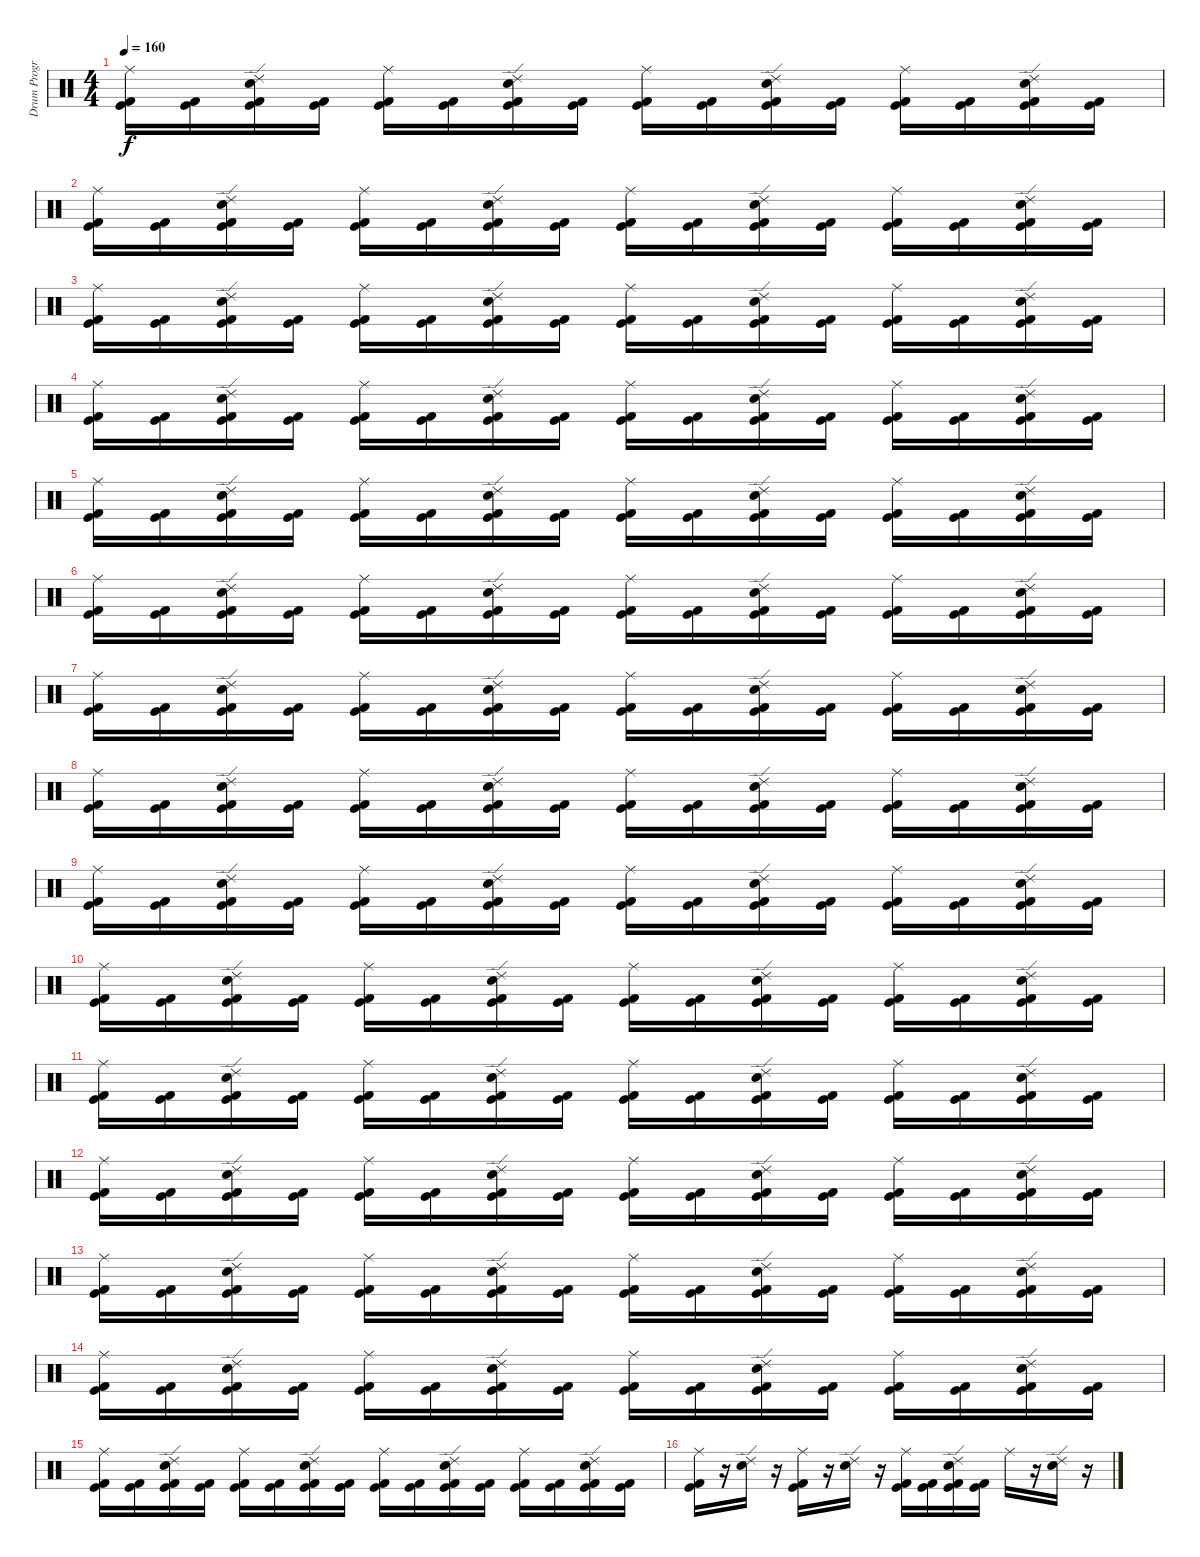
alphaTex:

\track ("Drum Program - BG" "Drum Progr") {instrument percussion}
\staff {score}
\articulation defaults
\ts (4 4)
\tempo 160
\clef neutral
\ks c
("Kick (hit)" "Kick (hit) 2" "Ride (middle)").16{dy f} ("Kick (hit)" "Kick (hit) 2").16 ("Kick (hit)" "Kick (hit) 2" "Electric Snare (hit)" "Ride (edge) 2").16 ("Kick (hit)" "Kick (hit) 2").16 ("Kick (hit)" "Kick (hit) 2" "Ride (middle)").16 ("Kick (hit)" "Kick (hit) 2").16 ("Kick (hit)" "Kick (hit) 2" "Electric Snare (hit)" "Ride (edge) 2").16 ("Kick (hit)" "Kick (hit) 2").16 ("Kick (hit)" "Kick (hit) 2" "Ride (middle)").16 ("Kick (hit)" "Kick (hit) 2").16 ("Kick (hit)" "Kick (hit) 2" "Electric Snare (hit)" "Ride (edge) 2").16 ("Kick (hit)" "Kick (hit) 2").16 ("Kick (hit)" "Kick (hit) 2" "Ride (middle)").16 ("Kick (hit)" "Kick (hit) 2").16 ("Kick (hit)" "Kick (hit) 2" "Electric Snare (hit)" "Ride (edge) 2").16 ("Kick (hit)" "Kick (hit) 2").16 |
("Kick (hit)" "Kick (hit) 2" "Ride (middle)").16 ("Kick (hit)" "Kick (hit) 2").16 ("Kick (hit)" "Kick (hit) 2" "Electric Snare (hit)" "Ride (edge) 2").16 ("Kick (hit)" "Kick (hit) 2").16 ("Kick (hit)" "Kick (hit) 2" "Ride (middle)").16 ("Kick (hit)" "Kick (hit) 2").16 ("Kick (hit)" "Kick (hit) 2" "Electric Snare (hit)" "Ride (edge) 2").16 ("Kick (hit)" "Kick (hit) 2").16 ("Kick (hit)" "Kick (hit) 2" "Ride (middle)").16 ("Kick (hit)" "Kick (hit) 2").16 ("Kick (hit)" "Kick (hit) 2" "Electric Snare (hit)" "Ride (edge) 2").16 ("Kick (hit)" "Kick (hit) 2").16 ("Kick (hit)" "Kick (hit) 2" "Ride (middle)").16 ("Kick (hit)" "Kick (hit) 2").16 ("Kick (hit)" "Kick (hit) 2" "Electric Snare (hit)" "Ride (edge) 2").16 ("Kick (hit)" "Kick (hit) 2").16 |
("Kick (hit)" "Kick (hit) 2" "Ride (middle)").16 ("Kick (hit)" "Kick (hit) 2").16 ("Kick (hit)" "Kick (hit) 2" "Electric Snare (hit)" "Ride (edge) 2").16 ("Kick (hit)" "Kick (hit) 2").16 ("Kick (hit)" "Kick (hit) 2" "Ride (middle)").16 ("Kick (hit)" "Kick (hit) 2").16 ("Kick (hit)" "Kick (hit) 2" "Electric Snare (hit)" "Ride (edge) 2").16 ("Kick (hit)" "Kick (hit) 2").16 ("Kick (hit)" "Kick (hit) 2" "Ride (middle)").16 ("Kick (hit)" "Kick (hit) 2").16 ("Kick (hit)" "Kick (hit) 2" "Electric Snare (hit)" "Ride (edge) 2").16 ("Kick (hit)" "Kick (hit) 2").16 ("Kick (hit)" "Kick (hit) 2" "Ride (middle)").16 ("Kick (hit)" "Kick (hit) 2").16 ("Kick (hit)" "Kick (hit) 2" "Electric Snare (hit)" "Ride (edge) 2").16 ("Kick (hit)" "Kick (hit) 2").16 |
("Kick (hit)" "Kick (hit) 2" "Ride (middle)").16 ("Kick (hit)" "Kick (hit) 2").16 ("Kick (hit)" "Kick (hit) 2" "Electric Snare (hit)" "Ride (edge) 2").16 ("Kick (hit)" "Kick (hit) 2").16 ("Kick (hit)" "Kick (hit) 2" "Ride (middle)").16 ("Kick (hit)" "Kick (hit) 2").16 ("Kick (hit)" "Kick (hit) 2" "Electric Snare (hit)" "Ride (edge) 2").16 ("Kick (hit)" "Kick (hit) 2").16 ("Kick (hit)" "Kick (hit) 2" "Ride (middle)").16 ("Kick (hit)" "Kick (hit) 2").16 ("Kick (hit)" "Kick (hit) 2" "Electric Snare (hit)" "Ride (edge) 2").16 ("Kick (hit)" "Kick (hit) 2").16 ("Kick (hit)" "Kick (hit) 2" "Ride (middle)").16 ("Kick (hit)" "Kick (hit) 2").16 ("Kick (hit)" "Kick (hit) 2" "Electric Snare (hit)" "Ride (edge) 2").16 ("Kick (hit)" "Kick (hit) 2").16 |
("Kick (hit)" "Kick (hit) 2" "Ride (middle)").16 ("Kick (hit)" "Kick (hit) 2").16 ("Kick (hit)" "Kick (hit) 2" "Electric Snare (hit)" "Ride (edge) 2").16 ("Kick (hit)" "Kick (hit) 2").16 ("Kick (hit)" "Kick (hit) 2" "Ride (middle)").16 ("Kick (hit)" "Kick (hit) 2").16 ("Kick (hit)" "Kick (hit) 2" "Electric Snare (hit)" "Ride (edge) 2").16 ("Kick (hit)" "Kick (hit) 2").16 ("Kick (hit)" "Kick (hit) 2" "Ride (middle)").16 ("Kick (hit)" "Kick (hit) 2").16 ("Kick (hit)" "Kick (hit) 2" "Electric Snare (hit)" "Ride (edge) 2").16 ("Kick (hit)" "Kick (hit) 2").16 ("Kick (hit)" "Kick (hit) 2" "Ride (middle)").16 ("Kick (hit)" "Kick (hit) 2").16 ("Kick (hit)" "Kick (hit) 2" "Electric Snare (hit)" "Ride (edge) 2").16 ("Kick (hit)" "Kick (hit) 2").16 |
("Kick (hit)" "Kick (hit) 2" "Ride (middle)").16 ("Kick (hit)" "Kick (hit) 2").16 ("Kick (hit)" "Kick (hit) 2" "Electric Snare (hit)" "Ride (edge) 2").16 ("Kick (hit)" "Kick (hit) 2").16 ("Kick (hit)" "Kick (hit) 2" "Ride (middle)").16 ("Kick (hit)" "Kick (hit) 2").16 ("Kick (hit)" "Kick (hit) 2" "Electric Snare (hit)" "Ride (edge) 2").16 ("Kick (hit)" "Kick (hit) 2").16 ("Kick (hit)" "Kick (hit) 2" "Ride (middle)").16 ("Kick (hit)" "Kick (hit) 2").16 ("Kick (hit)" "Kick (hit) 2" "Electric Snare (hit)" "Ride (edge) 2").16 ("Kick (hit)" "Kick (hit) 2").16 ("Kick (hit)" "Kick (hit) 2" "Ride (middle)").16 ("Kick (hit)" "Kick (hit) 2").16 ("Kick (hit)" "Kick (hit) 2" "Electric Snare (hit)" "Ride (edge) 2").16 ("Kick (hit)" "Kick (hit) 2").16 |
("Kick (hit)" "Kick (hit) 2" "Ride (middle)").16 ("Kick (hit)" "Kick (hit) 2").16 ("Kick (hit)" "Kick (hit) 2" "Electric Snare (hit)" "Ride (edge) 2").16 ("Kick (hit)" "Kick (hit) 2").16 ("Kick (hit)" "Kick (hit) 2" "Ride (middle)").16 ("Kick (hit)" "Kick (hit) 2").16 ("Kick (hit)" "Kick (hit) 2" "Electric Snare (hit)" "Ride (edge) 2").16 ("Kick (hit)" "Kick (hit) 2").16 ("Kick (hit)" "Kick (hit) 2" "Ride (middle)").16 ("Kick (hit)" "Kick (hit) 2").16 ("Kick (hit)" "Kick (hit) 2" "Electric Snare (hit)" "Ride (edge) 2").16 ("Kick (hit)" "Kick (hit) 2").16 ("Kick (hit)" "Kick (hit) 2" "Ride (middle)").16 ("Kick (hit)" "Kick (hit) 2").16 ("Kick (hit)" "Kick (hit) 2" "Electric Snare (hit)" "Ride (edge) 2").16 ("Kick (hit)" "Kick (hit) 2").16 |
("Kick (hit)" "Kick (hit) 2" "Ride (middle)").16 ("Kick (hit)" "Kick (hit) 2").16 ("Kick (hit)" "Kick (hit) 2" "Electric Snare (hit)" "Ride (edge) 2").16 ("Kick (hit)" "Kick (hit) 2").16 ("Kick (hit)" "Kick (hit) 2" "Ride (middle)").16 ("Kick (hit)" "Kick (hit) 2").16 ("Kick (hit)" "Kick (hit) 2" "Electric Snare (hit)" "Ride (edge) 2").16 ("Kick (hit)" "Kick (hit) 2").16 ("Kick (hit)" "Kick (hit) 2" "Ride (middle)").16 ("Kick (hit)" "Kick (hit) 2").16 ("Kick (hit)" "Kick (hit) 2" "Electric Snare (hit)" "Ride (edge) 2").16 ("Kick (hit)" "Kick (hit) 2").16 ("Kick (hit)" "Kick (hit) 2" "Ride (middle)").16 ("Kick (hit)" "Kick (hit) 2").16 ("Kick (hit)" "Kick (hit) 2" "Electric Snare (hit)" "Ride (edge) 2").16 ("Kick (hit)" "Kick (hit) 2").16 |
("Kick (hit)" "Kick (hit) 2" "Ride (middle)").16 ("Kick (hit)" "Kick (hit) 2").16 ("Kick (hit)" "Kick (hit) 2" "Electric Snare (hit)" "Ride (edge) 2").16 ("Kick (hit)" "Kick (hit) 2").16 ("Kick (hit)" "Kick (hit) 2" "Ride (middle)").16 ("Kick (hit)" "Kick (hit) 2").16 ("Kick (hit)" "Kick (hit) 2" "Electric Snare (hit)" "Ride (edge) 2").16 ("Kick (hit)" "Kick (hit) 2").16 ("Kick (hit)" "Kick (hit) 2" "Ride (middle)").16 ("Kick (hit)" "Kick (hit) 2").16 ("Kick (hit)" "Kick (hit) 2" "Electric Snare (hit)" "Ride (edge) 2").16 ("Kick (hit)" "Kick (hit) 2").16 ("Kick (hit)" "Kick (hit) 2" "Ride (middle)").16 ("Kick (hit)" "Kick (hit) 2").16 ("Kick (hit)" "Kick (hit) 2" "Electric Snare (hit)" "Ride (edge) 2").16 ("Kick (hit)" "Kick (hit) 2").16 |
("Kick (hit)" "Kick (hit) 2" "Ride (middle)").16 ("Kick (hit)" "Kick (hit) 2").16 ("Kick (hit)" "Kick (hit) 2" "Electric Snare (hit)" "Ride (edge) 2").16 ("Kick (hit)" "Kick (hit) 2").16 ("Kick (hit)" "Kick (hit) 2" "Ride (middle)").16 ("Kick (hit)" "Kick (hit) 2").16 ("Kick (hit)" "Kick (hit) 2" "Electric Snare (hit)" "Ride (edge) 2").16 ("Kick (hit)" "Kick (hit) 2").16 ("Kick (hit)" "Kick (hit) 2" "Ride (middle)").16 ("Kick (hit)" "Kick (hit) 2").16 ("Kick (hit)" "Kick (hit) 2" "Electric Snare (hit)" "Ride (edge) 2").16 ("Kick (hit)" "Kick (hit) 2").16 ("Kick (hit)" "Kick (hit) 2" "Ride (middle)").16 ("Kick (hit)" "Kick (hit) 2").16 ("Kick (hit)" "Kick (hit) 2" "Electric Snare (hit)" "Ride (edge) 2").16 ("Kick (hit)" "Kick (hit) 2").16 |
("Kick (hit)" "Kick (hit) 2" "Ride (middle)").16 ("Kick (hit)" "Kick (hit) 2").16 ("Kick (hit)" "Kick (hit) 2" "Electric Snare (hit)" "Ride (edge) 2").16 ("Kick (hit)" "Kick (hit) 2").16 ("Kick (hit)" "Kick (hit) 2" "Ride (middle)").16 ("Kick (hit)" "Kick (hit) 2").16 ("Kick (hit)" "Kick (hit) 2" "Electric Snare (hit)" "Ride (edge) 2").16 ("Kick (hit)" "Kick (hit) 2").16 ("Kick (hit)" "Kick (hit) 2" "Ride (middle)").16 ("Kick (hit)" "Kick (hit) 2").16 ("Kick (hit)" "Kick (hit) 2" "Electric Snare (hit)" "Ride (edge) 2").16 ("Kick (hit)" "Kick (hit) 2").16 ("Kick (hit)" "Kick (hit) 2" "Ride (middle)").16 ("Kick (hit)" "Kick (hit) 2").16 ("Kick (hit)" "Kick (hit) 2" "Electric Snare (hit)" "Ride (edge) 2").16 ("Kick (hit)" "Kick (hit) 2").16 |
("Kick (hit)" "Kick (hit) 2" "Ride (middle)").16 ("Kick (hit)" "Kick (hit) 2").16 ("Kick (hit)" "Kick (hit) 2" "Electric Snare (hit)" "Ride (edge) 2").16 ("Kick (hit)" "Kick (hit) 2").16 ("Kick (hit)" "Kick (hit) 2" "Ride (middle)").16 ("Kick (hit)" "Kick (hit) 2").16 ("Kick (hit)" "Kick (hit) 2" "Electric Snare (hit)" "Ride (edge) 2").16 ("Kick (hit)" "Kick (hit) 2").16 ("Kick (hit)" "Kick (hit) 2" "Ride (middle)").16 ("Kick (hit)" "Kick (hit) 2").16 ("Kick (hit)" "Kick (hit) 2" "Electric Snare (hit)" "Ride (edge) 2").16 ("Kick (hit)" "Kick (hit) 2").16 ("Kick (hit)" "Kick (hit) 2" "Ride (middle)").16 ("Kick (hit)" "Kick (hit) 2").16 ("Kick (hit)" "Kick (hit) 2" "Electric Snare (hit)" "Ride (edge) 2").16 ("Kick (hit)" "Kick (hit) 2").16 |
("Kick (hit)" "Kick (hit) 2" "Ride (middle)").16 ("Kick (hit)" "Kick (hit) 2").16 ("Kick (hit)" "Kick (hit) 2" "Electric Snare (hit)" "Ride (edge) 2").16 ("Kick (hit)" "Kick (hit) 2").16 ("Kick (hit)" "Kick (hit) 2" "Ride (middle)").16 ("Kick (hit)" "Kick (hit) 2").16 ("Kick (hit)" "Kick (hit) 2" "Electric Snare (hit)" "Ride (edge) 2").16 ("Kick (hit)" "Kick (hit) 2").16 ("Kick (hit)" "Kick (hit) 2" "Ride (middle)").16 ("Kick (hit)" "Kick (hit) 2").16 ("Kick (hit)" "Kick (hit) 2" "Electric Snare (hit)" "Ride (edge) 2").16 ("Kick (hit)" "Kick (hit) 2").16 ("Kick (hit)" "Kick (hit) 2" "Ride (middle)").16 ("Kick (hit)" "Kick (hit) 2").16 ("Kick (hit)" "Kick (hit) 2" "Electric Snare (hit)" "Ride (edge) 2").16 ("Kick (hit)" "Kick (hit) 2").16 |
("Kick (hit)" "Kick (hit) 2" "Ride (middle)").16 ("Kick (hit)" "Kick (hit) 2").16 ("Kick (hit)" "Kick (hit) 2" "Electric Snare (hit)" "Ride (edge) 2").16 ("Kick (hit)" "Kick (hit) 2").16 ("Kick (hit)" "Kick (hit) 2" "Ride (middle)").16 ("Kick (hit)" "Kick (hit) 2").16 ("Kick (hit)" "Kick (hit) 2" "Electric Snare (hit)" "Ride (edge) 2").16 ("Kick (hit)" "Kick (hit) 2").16 ("Kick (hit)" "Kick (hit) 2" "Ride (middle)").16 ("Kick (hit)" "Kick (hit) 2").16 ("Kick (hit)" "Kick (hit) 2" "Electric Snare (hit)" "Ride (edge) 2").16 ("Kick (hit)" "Kick (hit) 2").16 ("Kick (hit)" "Kick (hit) 2" "Ride (middle)").16 ("Kick (hit)" "Kick (hit) 2").16 ("Kick (hit)" "Kick (hit) 2" "Electric Snare (hit)" "Ride (edge) 2").16 ("Kick (hit)" "Kick (hit) 2").16 |
("Kick (hit)" "Kick (hit) 2" "Ride (middle)").16 ("Kick (hit)" "Kick (hit) 2").16 ("Kick (hit)" "Kick (hit) 2" "Electric Snare (hit)" "Ride (edge) 2").16 ("Kick (hit)" "Kick (hit) 2").16 ("Kick (hit)" "Kick (hit) 2" "Ride (middle)").16 ("Kick (hit)" "Kick (hit) 2").16 ("Kick (hit)" "Kick (hit) 2" "Electric Snare (hit)" "Ride (edge) 2").16 ("Kick (hit)" "Kick (hit) 2").16 ("Kick (hit)" "Kick (hit) 2" "Ride (middle)").16 ("Kick (hit)" "Kick (hit) 2").16 ("Kick (hit)" "Kick (hit) 2" "Electric Snare (hit)" "Ride (edge) 2").16 ("Kick (hit)" "Kick (hit) 2").16 ("Kick (hit)" "Kick (hit) 2" "Ride (middle)").16 ("Kick (hit)" "Kick (hit) 2").16 ("Kick (hit)" "Kick (hit) 2" "Electric Snare (hit)" "Ride (edge) 2").16 ("Kick (hit)" "Kick (hit) 2").16 |
("Kick (hit) 2" "Kick (hit)" "Ride (middle)").16 r.16 ("Electric Snare (hit)" "Ride (edge) 2").16 r.16 ("Kick (hit)" "Kick (hit) 2" "Ride (middle)").16 r.16 ("Electric Snare (hit)" "Ride (edge) 2").16 r.16 ("Kick (hit)" "Kick (hit) 2" "Ride (middle)").16 ("Kick (hit)" "Kick (hit) 2").16 ("Kick (hit)" "Kick (hit) 2" "Electric Snare (hit)" "Ride (edge) 2").16 ("Kick (hit)" "Kick (hit) 2").16 "Ride (middle)".16 r.16 ("Electric Snare (hit)" "Ride (edge) 2").16 r.16
